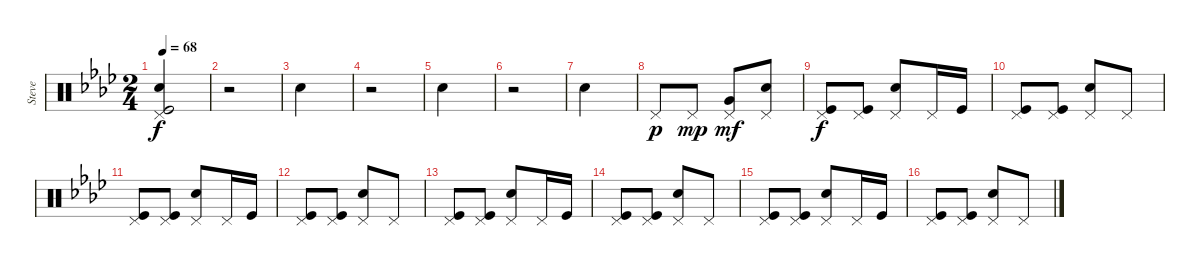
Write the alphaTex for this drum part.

\track ("Steve" "Steve") {instrument percussion}
\staff {score}
\articulation defaults
\ts (2 4)
\tempo 68
\clef neutral
\ks fminor
("Kick (hit)" "Pedal Hi-Hat (hit)" "Metronome (bell)").2{dy f} |
r.2 |
"Metronome (bell)".2 |
r.2 |
"Metronome (bell)".2 |
r.2 |
"Metronome (bell)".2 |
"Pedal Hi-Hat (hit)".8{dy p} "Pedal Hi-Hat (hit)".8{dy mp} ("Pedal Hi-Hat (hit)" "Very Low Tom (hit)").8{dy mf} ("Electric Snare (hit)" "Pedal Hi-Hat (hit)").8 |
("Kick (hit)" "Pedal Hi-Hat (hit)").8{dy f} ("Kick (hit)" "Pedal Hi-Hat (hit)").8 ("Electric Snare (hit)" "Pedal Hi-Hat (hit)").8 "Pedal Hi-Hat (hit)".16 "Kick (hit)".16 |
("Kick (hit)" "Pedal Hi-Hat (hit)").8 ("Kick (hit)" "Pedal Hi-Hat (hit)").8 ("Electric Snare (hit)" "Pedal Hi-Hat (hit)").8 "Pedal Hi-Hat (hit)".8 |
("Kick (hit)" "Pedal Hi-Hat (hit)").8 ("Kick (hit)" "Pedal Hi-Hat (hit)").8 ("Electric Snare (hit)" "Pedal Hi-Hat (hit)").8 "Pedal Hi-Hat (hit)".16 "Kick (hit)".16 |
("Kick (hit)" "Pedal Hi-Hat (hit)").8 ("Kick (hit)" "Pedal Hi-Hat (hit)").8 ("Electric Snare (hit)" "Pedal Hi-Hat (hit)").8 "Pedal Hi-Hat (hit)".8 |
("Kick (hit)" "Pedal Hi-Hat (hit)").8 ("Kick (hit)" "Pedal Hi-Hat (hit)").8 ("Electric Snare (hit)" "Pedal Hi-Hat (hit)").8 "Pedal Hi-Hat (hit)".16 "Kick (hit)".16 |
("Kick (hit)" "Pedal Hi-Hat (hit)").8 ("Kick (hit)" "Pedal Hi-Hat (hit)").8 ("Electric Snare (hit)" "Pedal Hi-Hat (hit)").8 "Pedal Hi-Hat (hit)".8 |
("Kick (hit)" "Pedal Hi-Hat (hit)").8 ("Kick (hit)" "Pedal Hi-Hat (hit)").8 ("Electric Snare (hit)" "Pedal Hi-Hat (hit)").8 "Pedal Hi-Hat (hit)".16 "Kick (hit)".16 |
("Kick (hit)" "Pedal Hi-Hat (hit)").8 ("Kick (hit)" "Pedal Hi-Hat (hit)").8 ("Electric Snare (hit)" "Pedal Hi-Hat (hit)").8 "Pedal Hi-Hat (hit)".8
